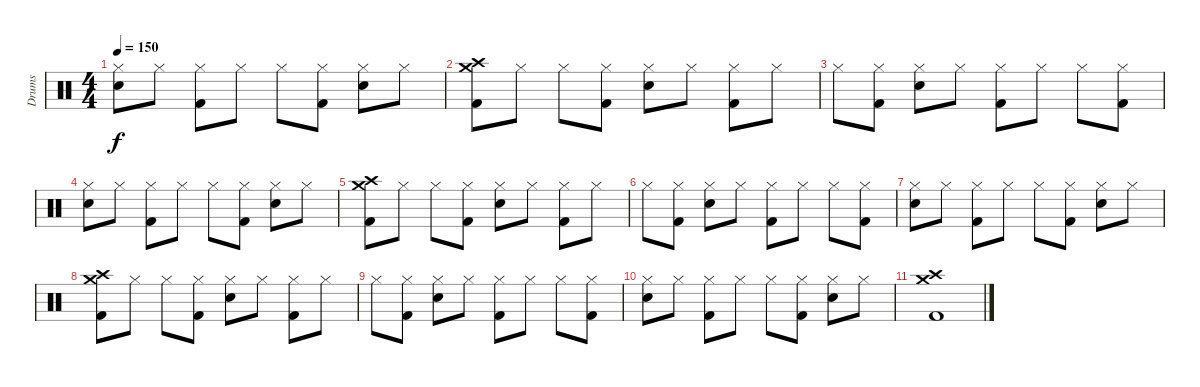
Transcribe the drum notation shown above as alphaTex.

\track ("Drums" "Drums") {instrument percussion}
\staff {score}
\articulation defaults
\ts (4 4)
\tempo 150
\clef neutral
\ks c
("Hi-Hat (closed)" "Electric Snare (hit)").8{dy f} "Hi-Hat (closed)".8 ("Hi-Hat (closed)" "Kick (hit) 2").8 "Hi-Hat (closed)".8 "Hi-Hat (closed)".8 ("Hi-Hat (closed)" "Kick (hit) 2").8 ("Hi-Hat (closed)" "Electric Snare (hit)").8 "Hi-Hat (closed)".8 |
("Crash high (hit)" "Crash medium (hit)" "Kick (hit) 2").8 "Hi-Hat (closed)".8 "Hi-Hat (closed)".8 ("Hi-Hat (closed)" "Kick (hit) 2").8 ("Hi-Hat (closed)" "Electric Snare (hit)").8 "Hi-Hat (closed)".8 ("Hi-Hat (closed)" "Kick (hit) 2").8 "Hi-Hat (closed)".8 |
"Hi-Hat (closed)".8 ("Hi-Hat (closed)" "Kick (hit) 2").8 ("Hi-Hat (closed)" "Electric Snare (hit)").8 "Hi-Hat (closed)".8 ("Hi-Hat (closed)" "Kick (hit) 2").8 "Hi-Hat (closed)".8 "Hi-Hat (closed)".8 ("Hi-Hat (closed)" "Kick (hit) 2").8 |
("Hi-Hat (closed)" "Electric Snare (hit)").8 "Hi-Hat (closed)".8 ("Hi-Hat (closed)" "Kick (hit) 2").8 "Hi-Hat (closed)".8 "Hi-Hat (closed)".8 ("Hi-Hat (closed)" "Kick (hit) 2").8 ("Hi-Hat (closed)" "Electric Snare (hit)").8 "Hi-Hat (closed)".8 |
("Crash high (hit)" "Crash medium (hit)" "Kick (hit) 2").8 "Hi-Hat (closed)".8 "Hi-Hat (closed)".8 ("Hi-Hat (closed)" "Kick (hit) 2").8 ("Hi-Hat (closed)" "Electric Snare (hit)").8 "Hi-Hat (closed)".8 ("Hi-Hat (closed)" "Kick (hit) 2").8 "Hi-Hat (closed)".8 |
"Hi-Hat (closed)".8 ("Hi-Hat (closed)" "Kick (hit) 2").8 ("Hi-Hat (closed)" "Electric Snare (hit)").8 "Hi-Hat (closed)".8 ("Hi-Hat (closed)" "Kick (hit) 2").8 "Hi-Hat (closed)".8 "Hi-Hat (closed)".8 ("Hi-Hat (closed)" "Kick (hit) 2").8 |
("Hi-Hat (closed)" "Electric Snare (hit)").8 "Hi-Hat (closed)".8 ("Hi-Hat (closed)" "Kick (hit) 2").8 "Hi-Hat (closed)".8 "Hi-Hat (closed)".8 ("Hi-Hat (closed)" "Kick (hit) 2").8 ("Hi-Hat (closed)" "Electric Snare (hit)").8 "Hi-Hat (closed)".8 |
("Crash high (hit)" "Crash medium (hit)" "Kick (hit) 2").8 "Hi-Hat (closed)".8 "Hi-Hat (closed)".8 ("Hi-Hat (closed)" "Kick (hit) 2").8 ("Hi-Hat (closed)" "Electric Snare (hit)").8 "Hi-Hat (closed)".8 ("Hi-Hat (closed)" "Kick (hit) 2").8 "Hi-Hat (closed)".8 |
"Hi-Hat (closed)".8 ("Hi-Hat (closed)" "Kick (hit) 2").8 ("Hi-Hat (closed)" "Electric Snare (hit)").8 "Hi-Hat (closed)".8 ("Hi-Hat (closed)" "Kick (hit) 2").8 "Hi-Hat (closed)".8 "Hi-Hat (closed)".8 ("Hi-Hat (closed)" "Kick (hit) 2").8 |
("Hi-Hat (closed)" "Electric Snare (hit)").8 "Hi-Hat (closed)".8 ("Hi-Hat (closed)" "Kick (hit) 2").8 "Hi-Hat (closed)".8 "Hi-Hat (closed)".8 ("Hi-Hat (closed)" "Kick (hit) 2").8 ("Hi-Hat (closed)" "Electric Snare (hit)").8 "Hi-Hat (closed)".8 |
("Crash high (hit)" "Crash medium (hit)" "Kick (hit) 2").1
